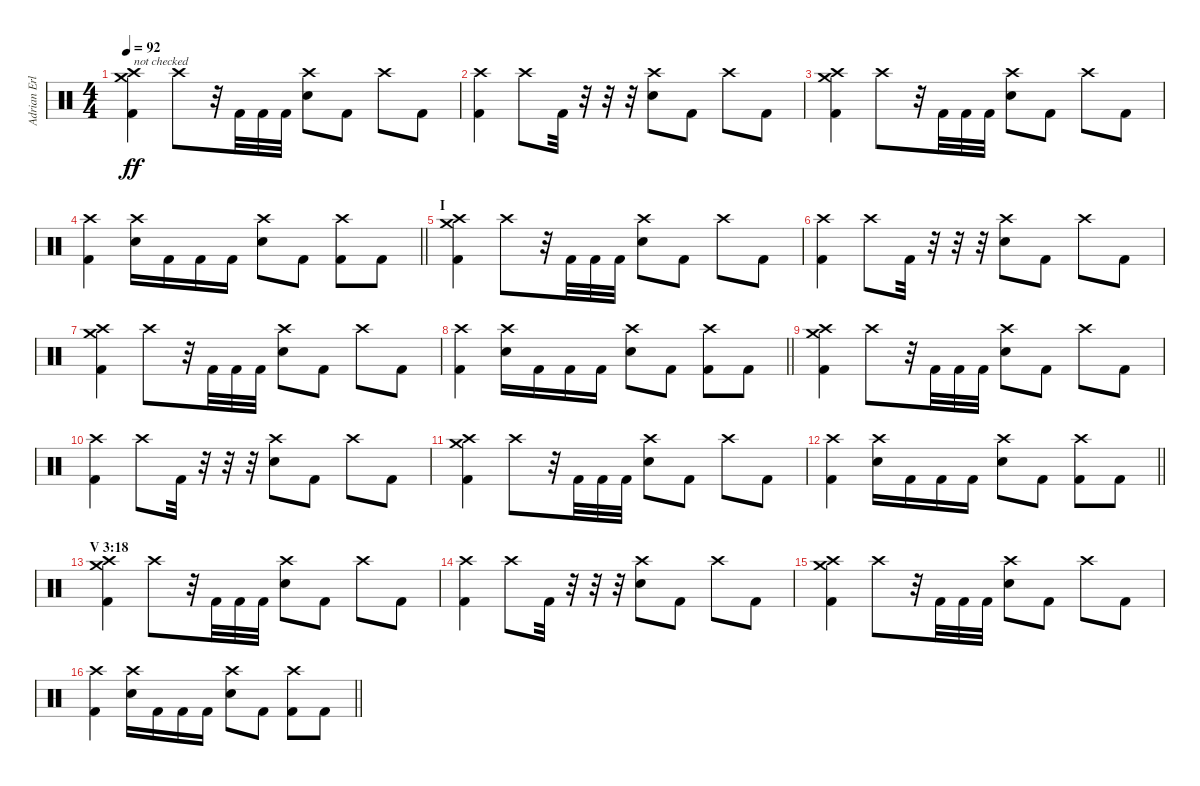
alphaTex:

\track ("Adrian Erlandsson (drums)" "Adrian Erl") {instrument percussion}
\staff {score}
\articulation defaults
\ts (4 4)
\tempo 92
\clef neutral
\ks c
("Crash high (hit)" "Crash medium (hit)" "Kick (hit) 2").4{txt "not checked" dy ff} "Crash high (hit)".8 r.32 "Kick (hit) 2".32 "Kick (hit) 2".32 "Kick (hit) 2".32 ("Crash high (hit)" "Electric Snare (hit)").8 "Kick (hit) 2".8 "Crash high (hit)".8 "Kick (hit) 2".8 |
("Crash high (hit)" "Kick (hit) 2").4 "Crash high (hit)".8 "Kick (hit) 2".32 r.32 r.32 r.32 ("Crash high (hit)" "Electric Snare (hit)").8 "Kick (hit) 2".8 "Crash high (hit)".8 "Kick (hit) 2".8 |
("Crash high (hit)" "Crash medium (hit)" "Kick (hit) 2").4 "Crash high (hit)".8 r.32 "Kick (hit) 2".32 "Kick (hit) 2".32 "Kick (hit) 2".32 ("Crash high (hit)" "Electric Snare (hit)").8 "Kick (hit) 2".8 "Crash high (hit)".8 "Kick (hit) 2".8 |
\barLineRight lightlight
("Crash high (hit)" "Kick (hit) 2").4 ("Crash high (hit)" "Electric Snare (hit)").16 "Kick (hit) 2".16 "Kick (hit) 2".16 "Kick (hit) 2".16 ("Crash high (hit)" "Electric Snare (hit)").8 "Kick (hit) 2".8 ("Crash high (hit)" "Kick (hit) 2").8 "Kick (hit) 2".8 |
\section ("" "I")
("Crash high (hit)" "Crash medium (hit)" "Kick (hit) 2").4 "Crash high (hit)".8 r.32 "Kick (hit) 2".32 "Kick (hit) 2".32 "Kick (hit) 2".32 ("Crash high (hit)" "Electric Snare (hit)").8 "Kick (hit) 2".8 "Crash high (hit)".8 "Kick (hit) 2".8 |
("Crash high (hit)" "Kick (hit) 2").4 "Crash high (hit)".8 "Kick (hit) 2".32 r.32 r.32 r.32 ("Crash high (hit)" "Electric Snare (hit)").8 "Kick (hit) 2".8 "Crash high (hit)".8 "Kick (hit) 2".8 |
("Crash high (hit)" "Crash medium (hit)" "Kick (hit) 2").4 "Crash high (hit)".8 r.32 "Kick (hit) 2".32 "Kick (hit) 2".32 "Kick (hit) 2".32 ("Crash high (hit)" "Electric Snare (hit)").8 "Kick (hit) 2".8 "Crash high (hit)".8 "Kick (hit) 2".8 |
\barLineRight lightlight
("Crash high (hit)" "Kick (hit) 2").4 ("Crash high (hit)" "Electric Snare (hit)").16 "Kick (hit) 2".16 "Kick (hit) 2".16 "Kick (hit) 2".16 ("Crash high (hit)" "Electric Snare (hit)").8 "Kick (hit) 2".8 ("Crash high (hit)" "Kick (hit) 2").8 "Kick (hit) 2".8 |
("Crash high (hit)" "Crash medium (hit)" "Kick (hit) 2").4 "Crash high (hit)".8 r.32 "Kick (hit) 2".32 "Kick (hit) 2".32 "Kick (hit) 2".32 ("Crash high (hit)" "Electric Snare (hit)").8 "Kick (hit) 2".8 "Crash high (hit)".8 "Kick (hit) 2".8 |
("Crash high (hit)" "Kick (hit) 2").4 "Crash high (hit)".8 "Kick (hit) 2".32 r.32 r.32 r.32 ("Crash high (hit)" "Electric Snare (hit)").8 "Kick (hit) 2".8 "Crash high (hit)".8 "Kick (hit) 2".8 |
("Crash high (hit)" "Crash medium (hit)" "Kick (hit) 2").4 "Crash high (hit)".8 r.32 "Kick (hit) 2".32 "Kick (hit) 2".32 "Kick (hit) 2".32 ("Crash high (hit)" "Electric Snare (hit)").8 "Kick (hit) 2".8 "Crash high (hit)".8 "Kick (hit) 2".8 |
\barLineRight lightlight
("Crash high (hit)" "Kick (hit) 2").4 ("Crash high (hit)" "Electric Snare (hit)").16 "Kick (hit) 2".16 "Kick (hit) 2".16 "Kick (hit) 2".16 ("Crash high (hit)" "Electric Snare (hit)").8 "Kick (hit) 2".8 ("Crash high (hit)" "Kick (hit) 2").8 "Kick (hit) 2".8 |
\section ("" "V 3:18")
("Crash high (hit)" "Crash medium (hit)" "Kick (hit) 2").4 "Crash high (hit)".8 r.32 "Kick (hit) 2".32 "Kick (hit) 2".32 "Kick (hit) 2".32 ("Crash high (hit)" "Electric Snare (hit)").8 "Kick (hit) 2".8 "Crash high (hit)".8 "Kick (hit) 2".8 |
("Crash high (hit)" "Kick (hit) 2").4 "Crash high (hit)".8 "Kick (hit) 2".32 r.32 r.32 r.32 ("Crash high (hit)" "Electric Snare (hit)").8 "Kick (hit) 2".8 "Crash high (hit)".8 "Kick (hit) 2".8 |
("Crash high (hit)" "Crash medium (hit)" "Kick (hit) 2").4 "Crash high (hit)".8 r.32 "Kick (hit) 2".32 "Kick (hit) 2".32 "Kick (hit) 2".32 ("Crash high (hit)" "Electric Snare (hit)").8 "Kick (hit) 2".8 "Crash high (hit)".8 "Kick (hit) 2".8 |
\barLineRight lightlight
("Crash high (hit)" "Kick (hit) 2").4 ("Crash high (hit)" "Electric Snare (hit)").16 "Kick (hit) 2".16 "Kick (hit) 2".16 "Kick (hit) 2".16 ("Crash high (hit)" "Electric Snare (hit)").8 "Kick (hit) 2".8 ("Crash high (hit)" "Kick (hit) 2").8 "Kick (hit) 2".8
